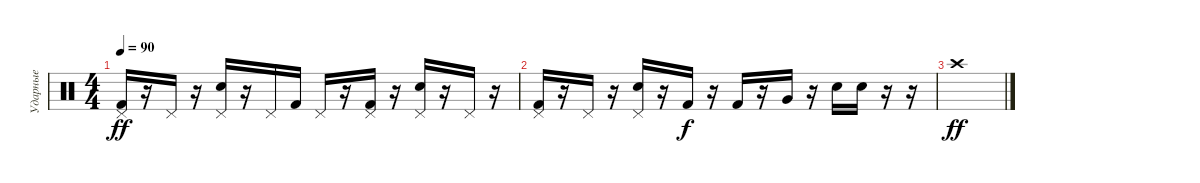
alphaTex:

\track ("Ударные" "Ударные") {instrument percussion}
\staff {score}
\articulation defaults
\ts (4 4)
\tempo 90
\clef neutral
\ks aminor
("Pedal Hi-Hat (hit)" "Kick (hit) 2").16{dy ff} r.16 "Pedal Hi-Hat (hit)".16 r.16 ("Pedal Hi-Hat (hit)" "Electric Snare (hit)").16 r.16 "Pedal Hi-Hat (hit)".16 "Kick (hit) 2".16 "Pedal Hi-Hat (hit)".16 r.16 ("Pedal Hi-Hat (hit)" "Kick (hit) 2").16 r.16 ("Pedal Hi-Hat (hit)" "Electric Snare (hit)").16 r.16 "Pedal Hi-Hat (hit)".16 r.16 |
("Pedal Hi-Hat (hit)" "Kick (hit) 2").16 r.16 "Pedal Hi-Hat (hit)".16 r.16 ("Pedal Hi-Hat (hit)" "Electric Snare (hit)").16 r.16 "Kick (hit) 2".16{dy f} r.16 "Kick (hit) 2".16 r.16 "Very Low Tom (hit)".16 r.16 "Electric Snare (hit)".16 "Electric Snare (hit)".16 r.16 r.16 |
"Crash high (hit)".1{dy ff}
